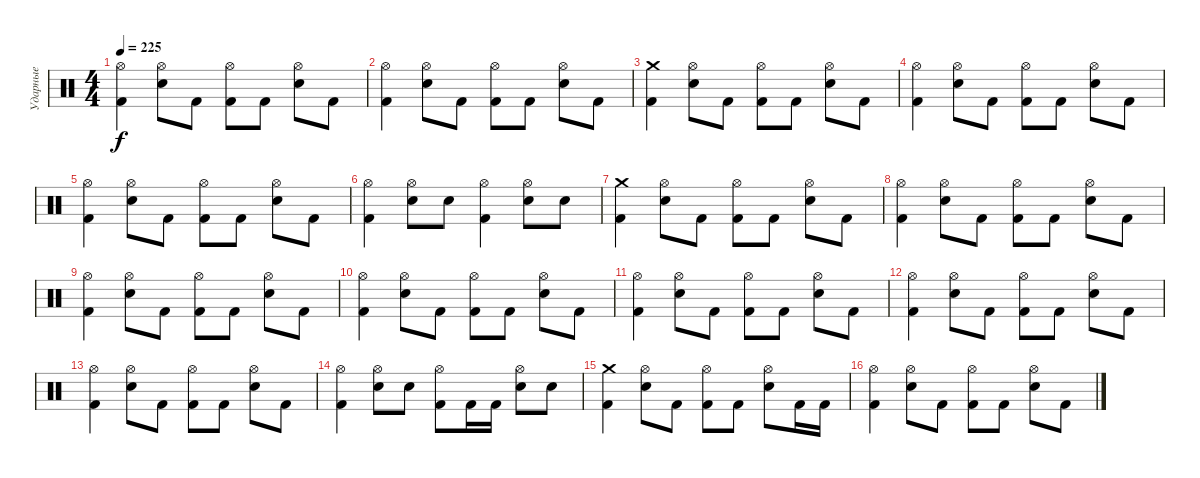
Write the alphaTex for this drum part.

\track ("Ударные" "Ударные") {instrument percussion}
\staff {score}
\articulation defaults
\ts (4 4)
\tempo 225
\clef neutral
\ks c
("Hi-Hat (open)" "Kick (hit) 2").4{dy f} ("Hi-Hat (open)" "Snare (hit) 2").8 "Kick (hit) 2".8 ("Hi-Hat (open)" "Kick (hit) 2").8 "Kick (hit) 2".8 ("Hi-Hat (open)" "Snare (hit) 2").8 "Kick (hit) 2".8 |
("Hi-Hat (open)" "Kick (hit) 2").4 ("Hi-Hat (open)" "Snare (hit) 2").8 "Kick (hit) 2".8 ("Hi-Hat (open)" "Kick (hit) 2").8 "Kick (hit) 2".8 ("Hi-Hat (open)" "Snare (hit) 2").8 "Kick (hit) 2".8 |
("Crash medium (hit)" "Kick (hit) 2").4 ("Hi-Hat (open)" "Snare (hit) 2").8 "Kick (hit) 2".8 ("Hi-Hat (open)" "Kick (hit) 2").8 "Kick (hit) 2".8 ("Hi-Hat (open)" "Snare (hit) 2").8 "Kick (hit) 2".8 |
("Hi-Hat (open)" "Kick (hit) 2").4 ("Hi-Hat (open)" "Snare (hit) 2").8 "Kick (hit) 2".8 ("Hi-Hat (open)" "Kick (hit) 2").8 "Kick (hit) 2".8 ("Hi-Hat (open)" "Snare (hit) 2").8 "Kick (hit) 2".8 |
("Hi-Hat (open)" "Kick (hit) 2").4 ("Hi-Hat (open)" "Snare (hit) 2").8 "Kick (hit) 2".8 ("Hi-Hat (open)" "Kick (hit) 2").8 "Kick (hit) 2".8 ("Hi-Hat (open)" "Snare (hit) 2").8 "Kick (hit) 2".8 |
("Hi-Hat (open)" "Kick (hit) 2").4 ("Hi-Hat (open)" "Snare (hit) 2").8 "Snare (hit) 2".8 ("Hi-Hat (open)" "Kick (hit) 2").4 ("Hi-Hat (open)" "Snare (hit) 2").8 "Snare (hit) 2".8 |
("Crash medium (hit)" "Kick (hit) 2").4 ("Hi-Hat (open)" "Snare (hit) 2").8 "Kick (hit) 2".8 ("Hi-Hat (open)" "Kick (hit) 2").8 "Kick (hit) 2".8 ("Hi-Hat (open)" "Snare (hit) 2").8 "Kick (hit) 2".8 |
("Hi-Hat (open)" "Kick (hit) 2").4 ("Hi-Hat (open)" "Snare (hit) 2").8 "Kick (hit) 2".8 ("Hi-Hat (open)" "Kick (hit) 2").8 "Kick (hit) 2".8 ("Hi-Hat (open)" "Snare (hit) 2").8 "Kick (hit) 2".8 |
("Hi-Hat (open)" "Kick (hit) 2").4 ("Hi-Hat (open)" "Snare (hit) 2").8 "Kick (hit) 2".8 ("Hi-Hat (open)" "Kick (hit) 2").8 "Kick (hit) 2".8 ("Hi-Hat (open)" "Snare (hit) 2").8 "Kick (hit) 2".8 |
("Hi-Hat (open)" "Kick (hit) 2").4 ("Hi-Hat (open)" "Snare (hit) 2").8 "Kick (hit) 2".8 ("Hi-Hat (open)" "Kick (hit) 2").8 "Kick (hit) 2".8 ("Hi-Hat (open)" "Snare (hit) 2").8 "Kick (hit) 2".8 |
("Hi-Hat (open)" "Kick (hit) 2").4 ("Hi-Hat (open)" "Snare (hit) 2").8 "Kick (hit) 2".8 ("Hi-Hat (open)" "Kick (hit) 2").8 "Kick (hit) 2".8 ("Hi-Hat (open)" "Snare (hit) 2").8 "Kick (hit) 2".8 |
("Hi-Hat (open)" "Kick (hit) 2").4 ("Hi-Hat (open)" "Snare (hit) 2").8 "Kick (hit) 2".8 ("Hi-Hat (open)" "Kick (hit) 2").8 "Kick (hit) 2".8 ("Hi-Hat (open)" "Snare (hit) 2").8 "Kick (hit) 2".8 |
("Hi-Hat (open)" "Kick (hit) 2").4 ("Hi-Hat (open)" "Snare (hit) 2").8 "Kick (hit) 2".8 ("Hi-Hat (open)" "Kick (hit) 2").8 "Kick (hit) 2".8 ("Hi-Hat (open)" "Snare (hit) 2").8 "Kick (hit) 2".8 |
("Hi-Hat (open)" "Kick (hit) 2").4 ("Hi-Hat (open)" "Snare (hit) 2").8 "Snare (hit) 2".8 ("Hi-Hat (open)" "Kick (hit) 2").8 "Kick (hit) 2".16 "Kick (hit) 2".16 ("Hi-Hat (open)" "Snare (hit) 2").8 "Snare (hit) 2".8 |
("Crash medium (hit)" "Kick (hit) 2").4 ("Hi-Hat (open)" "Snare (hit) 2").8 "Kick (hit) 2".8 ("Hi-Hat (open)" "Kick (hit) 2").8 "Kick (hit) 2".8 ("Hi-Hat (open)" "Snare (hit) 2").8 "Kick (hit) 2".16 "Kick (hit) 2".16 |
("Hi-Hat (open)" "Kick (hit) 2").4 ("Hi-Hat (open)" "Snare (hit) 2").8 "Kick (hit) 2".8 ("Hi-Hat (open)" "Kick (hit) 2").8 "Kick (hit) 2".8 ("Hi-Hat (open)" "Snare (hit) 2").8 "Kick (hit) 2".8
